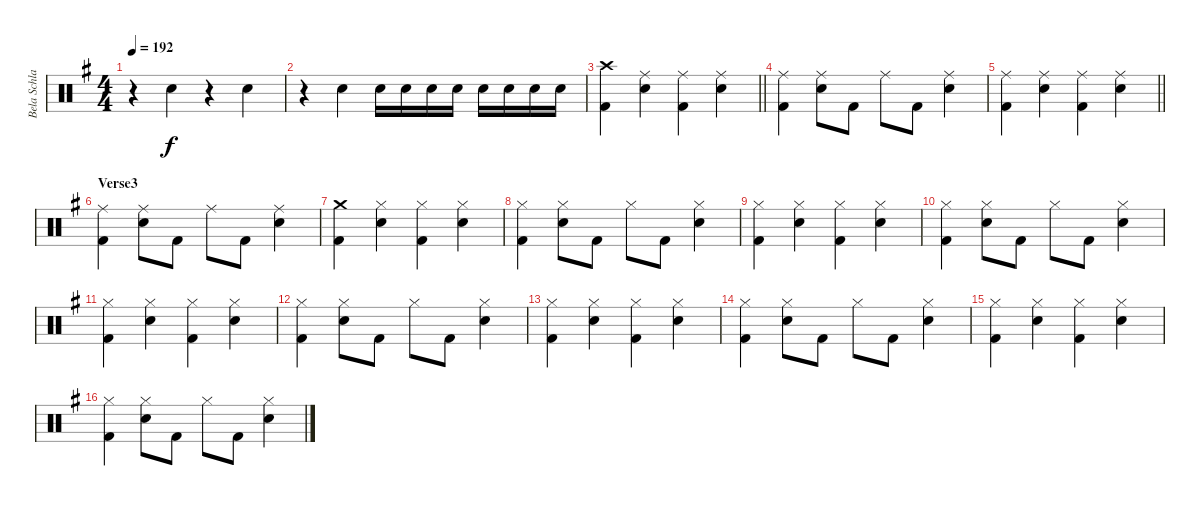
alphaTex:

\track ("Bela Schlagzeug" "Bela Schla") {instrument percussion}
\staff {score}
\articulation defaults
\ts (4 4)
\tempo 192
\clef neutral
\ks g
r.4{dy f} "Hand Clap (hit)".4 r.4 "Hand Clap (hit)".4 |
r.4 "Hand Clap (hit)".4 "Electric Snare (hit)".16 "Electric Snare (hit)".16 "Electric Snare (hit)".16 "Electric Snare (hit)".16 "Electric Snare (hit)".16 "Electric Snare (hit)".16 "Electric Snare (hit)".16 "Electric Snare (hit)".16 |
\barLineRight lightlight
("Crash high (hit)" "Kick (hit) 2").4 ("Ride (middle)" "Electric Snare (hit)").4 ("Ride (middle)" "Kick (hit) 2").4 ("Ride (middle)" "Electric Snare (hit)").4 |
("Ride (middle)" "Kick (hit) 2").4 ("Ride (middle)" "Electric Snare (hit)").8 "Kick (hit) 2".8 "Ride (middle)".8 "Kick (hit) 2".8 ("Ride (middle)" "Electric Snare (hit)").4 |
\barLineRight lightlight
("Ride (middle)" "Kick (hit) 2").4 ("Ride (middle)" "Electric Snare (hit)").4 ("Ride (middle)" "Kick (hit) 2").4 ("Ride (middle)" "Electric Snare (hit)").4 |
\section ("" "Verse3")
("Ride (middle)" "Kick (hit) 2").4 ("Ride (middle)" "Electric Snare (hit)").8 "Kick (hit) 2".8 "Ride (middle)".8 "Kick (hit) 2".8 ("Ride (middle)" "Electric Snare (hit)").4 |
("Crash medium (hit)" "Kick (hit) 2").4 ("Hi-Hat (closed)" "Electric Snare (hit)").4 ("Hi-Hat (closed)" "Kick (hit) 2").4 ("Hi-Hat (closed)" "Electric Snare (hit)").4 |
("Hi-Hat (closed)" "Kick (hit) 2").4 ("Hi-Hat (closed)" "Electric Snare (hit)").8 "Kick (hit) 2".8 "Hi-Hat (closed)".8 "Kick (hit) 2".8 ("Hi-Hat (closed)" "Electric Snare (hit)").4 |
("Hi-Hat (closed)" "Kick (hit) 2").4 ("Hi-Hat (closed)" "Electric Snare (hit)").4 ("Hi-Hat (closed)" "Kick (hit) 2").4 ("Hi-Hat (closed)" "Electric Snare (hit)").4 |
("Hi-Hat (closed)" "Kick (hit) 2").4 ("Hi-Hat (closed)" "Electric Snare (hit)").8 "Kick (hit) 2".8 "Hi-Hat (closed)".8 "Kick (hit) 2".8 ("Hi-Hat (closed)" "Electric Snare (hit)").4 |
("Hi-Hat (closed)" "Kick (hit) 2").4 ("Hi-Hat (closed)" "Electric Snare (hit)").4 ("Hi-Hat (closed)" "Kick (hit) 2").4 ("Hi-Hat (closed)" "Electric Snare (hit)").4 |
("Hi-Hat (closed)" "Kick (hit) 2").4 ("Hi-Hat (closed)" "Electric Snare (hit)").8 "Kick (hit) 2".8 "Hi-Hat (closed)".8 "Kick (hit) 2".8 ("Hi-Hat (closed)" "Electric Snare (hit)").4 |
("Hi-Hat (closed)" "Kick (hit) 2").4 ("Hi-Hat (closed)" "Electric Snare (hit)").4 ("Hi-Hat (closed)" "Kick (hit) 2").4 ("Hi-Hat (closed)" "Electric Snare (hit)").4 |
("Hi-Hat (closed)" "Kick (hit) 2").4 ("Hi-Hat (closed)" "Electric Snare (hit)").8 "Kick (hit) 2".8 "Hi-Hat (closed)".8 "Kick (hit) 2".8 ("Hi-Hat (closed)" "Electric Snare (hit)").4 |
("Hi-Hat (closed)" "Kick (hit) 2").4 ("Hi-Hat (closed)" "Electric Snare (hit)").4 ("Hi-Hat (closed)" "Kick (hit) 2").4 ("Hi-Hat (closed)" "Electric Snare (hit)").4 |
("Hi-Hat (closed)" "Kick (hit) 2").4 ("Hi-Hat (closed)" "Electric Snare (hit)").8 "Kick (hit) 2".8 "Hi-Hat (closed)".8 "Kick (hit) 2".8 ("Hi-Hat (closed)" "Electric Snare (hit)").4
